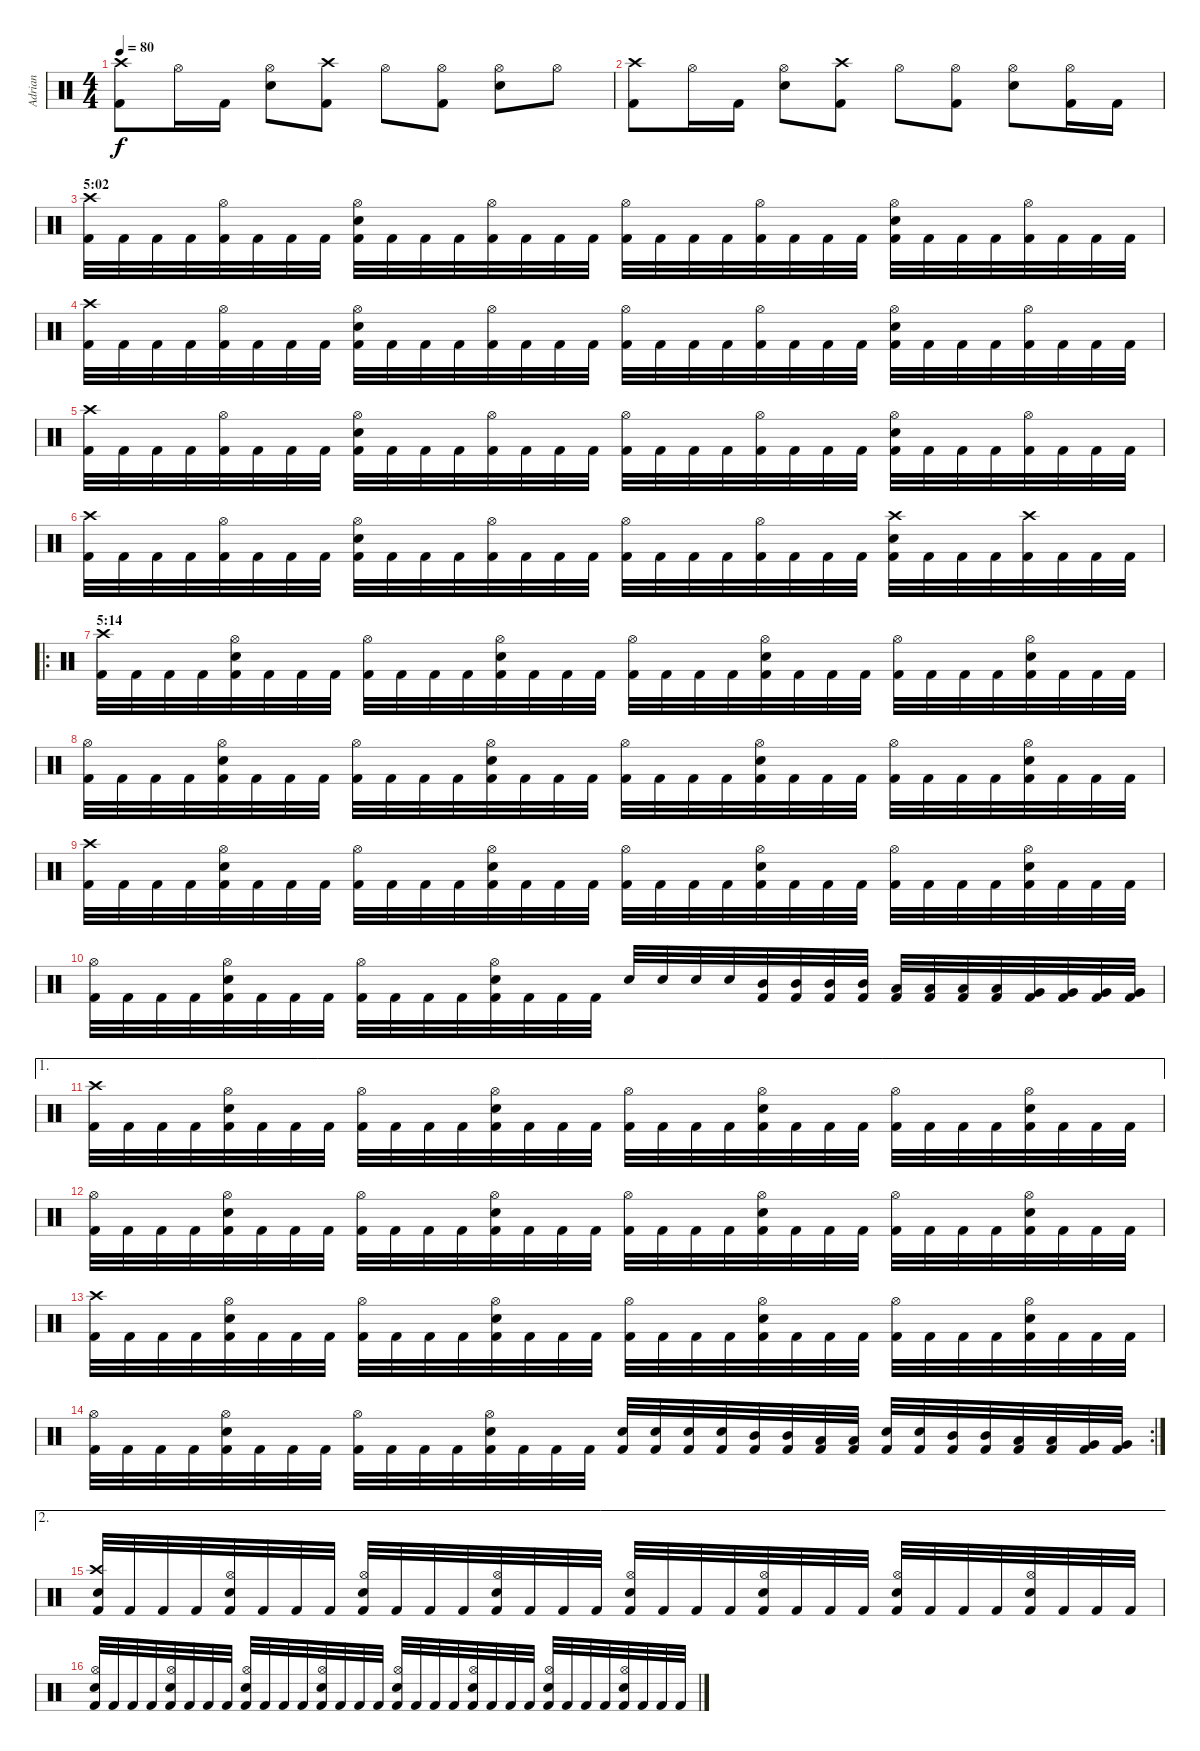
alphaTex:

\track ("Adrian" "Adrian") {instrument percussion}
\staff {score}
\articulation defaults
\ts (4 4)
\tempo 80
\clef neutral
\ks c
("Kick (hit) 2" "Crash high (hit)").8{dy f} "Hi-Hat (open)".16 "Kick (hit) 2".16 ("Snare (hit) 2" "Hi-Hat (open)").8 ("Kick (hit) 2" "Crash high (hit)").8 "Hi-Hat (open)".8 ("Kick (hit) 2" "Hi-Hat (open)").8 ("Snare (hit) 2" "Hi-Hat (open)").8 "Hi-Hat (open)".8 |
("Kick (hit) 2" "Crash high (hit)").8 "Hi-Hat (open)".16 "Kick (hit) 2".16 ("Snare (hit) 2" "Hi-Hat (open)").8 ("Kick (hit) 2" "Crash high (hit)").8 "Hi-Hat (open)".8 ("Kick (hit) 2" "Hi-Hat (open)").8 ("Snare (hit) 2" "Hi-Hat (open)").8 ("Kick (hit) 2" "Hi-Hat (open)").16 "Kick (hit) 2".16 |
\section ("" "5:02")
("Kick (hit) 2" "Crash high (hit)").32 "Kick (hit) 2".32 "Kick (hit) 2".32 "Kick (hit) 2".32 ("Kick (hit) 2" "Hi-Hat (open)").32 "Kick (hit) 2".32 "Kick (hit) 2".32 "Kick (hit) 2".32 ("Kick (hit) 2" "Snare (hit) 2" "Hi-Hat (open)").32 "Kick (hit) 2".32 "Kick (hit) 2".32 "Kick (hit) 2".32 ("Kick (hit) 2" "Hi-Hat (open)").32 "Kick (hit) 2".32 "Kick (hit) 2".32 "Kick (hit) 2".32 ("Kick (hit) 2" "Hi-Hat (open)").32 "Kick (hit) 2".32 "Kick (hit) 2".32 "Kick (hit) 2".32 ("Kick (hit) 2" "Hi-Hat (open)").32 "Kick (hit) 2".32 "Kick (hit) 2".32 "Kick (hit) 2".32 ("Kick (hit) 2" "Snare (hit) 2" "Hi-Hat (open)").32 "Kick (hit) 2".32 "Kick (hit) 2".32 "Kick (hit) 2".32 ("Kick (hit) 2" "Hi-Hat (open)").32 "Kick (hit) 2".32 "Kick (hit) 2".32 "Kick (hit) 2".32 |
("Kick (hit) 2" "Crash high (hit)").32 "Kick (hit) 2".32 "Kick (hit) 2".32 "Kick (hit) 2".32 ("Kick (hit) 2" "Hi-Hat (open)").32 "Kick (hit) 2".32 "Kick (hit) 2".32 "Kick (hit) 2".32 ("Kick (hit) 2" "Snare (hit) 2" "Hi-Hat (open)").32 "Kick (hit) 2".32 "Kick (hit) 2".32 "Kick (hit) 2".32 ("Kick (hit) 2" "Hi-Hat (open)").32 "Kick (hit) 2".32 "Kick (hit) 2".32 "Kick (hit) 2".32 ("Kick (hit) 2" "Hi-Hat (open)").32 "Kick (hit) 2".32 "Kick (hit) 2".32 "Kick (hit) 2".32 ("Kick (hit) 2" "Hi-Hat (open)").32 "Kick (hit) 2".32 "Kick (hit) 2".32 "Kick (hit) 2".32 ("Kick (hit) 2" "Snare (hit) 2" "Hi-Hat (open)").32 "Kick (hit) 2".32 "Kick (hit) 2".32 "Kick (hit) 2".32 ("Kick (hit) 2" "Hi-Hat (open)").32 "Kick (hit) 2".32 "Kick (hit) 2".32 "Kick (hit) 2".32 |
("Kick (hit) 2" "Crash high (hit)").32 "Kick (hit) 2".32 "Kick (hit) 2".32 "Kick (hit) 2".32 ("Kick (hit) 2" "Hi-Hat (open)").32 "Kick (hit) 2".32 "Kick (hit) 2".32 "Kick (hit) 2".32 ("Kick (hit) 2" "Snare (hit) 2" "Hi-Hat (open)").32 "Kick (hit) 2".32 "Kick (hit) 2".32 "Kick (hit) 2".32 ("Kick (hit) 2" "Hi-Hat (open)").32 "Kick (hit) 2".32 "Kick (hit) 2".32 "Kick (hit) 2".32 ("Kick (hit) 2" "Hi-Hat (open)").32 "Kick (hit) 2".32 "Kick (hit) 2".32 "Kick (hit) 2".32 ("Kick (hit) 2" "Hi-Hat (open)").32 "Kick (hit) 2".32 "Kick (hit) 2".32 "Kick (hit) 2".32 ("Kick (hit) 2" "Snare (hit) 2" "Hi-Hat (open)").32 "Kick (hit) 2".32 "Kick (hit) 2".32 "Kick (hit) 2".32 ("Kick (hit) 2" "Hi-Hat (open)").32 "Kick (hit) 2".32 "Kick (hit) 2".32 "Kick (hit) 2".32 |
("Kick (hit) 2" "Crash high (hit)").32 "Kick (hit) 2".32 "Kick (hit) 2".32 "Kick (hit) 2".32 ("Kick (hit) 2" "Hi-Hat (open)").32 "Kick (hit) 2".32 "Kick (hit) 2".32 "Kick (hit) 2".32 ("Kick (hit) 2" "Snare (hit) 2" "Hi-Hat (open)").32 "Kick (hit) 2".32 "Kick (hit) 2".32 "Kick (hit) 2".32 ("Kick (hit) 2" "Hi-Hat (open)").32 "Kick (hit) 2".32 "Kick (hit) 2".32 "Kick (hit) 2".32 ("Kick (hit) 2" "Hi-Hat (open)").32 "Kick (hit) 2".32 "Kick (hit) 2".32 "Kick (hit) 2".32 ("Kick (hit) 2" "Hi-Hat (open)").32 "Kick (hit) 2".32 "Kick (hit) 2".32 "Kick (hit) 2".32 ("Kick (hit) 2" "Snare (hit) 2" "Crash high (hit)").32 "Kick (hit) 2".32 "Kick (hit) 2".32 "Kick (hit) 2".32 ("Kick (hit) 2" "Crash high (hit)").32 "Kick (hit) 2".32 "Kick (hit) 2".32 "Kick (hit) 2".32 |
\ro
\section ("" "5:14")
("Kick (hit) 2" "Crash high (hit)").32 "Kick (hit) 2".32 "Kick (hit) 2".32 "Kick (hit) 2".32 ("Kick (hit) 2" "Snare (hit) 2" "Hi-Hat (open)").32 "Kick (hit) 2".32 "Kick (hit) 2".32 "Kick (hit) 2".32 ("Kick (hit) 2" "Hi-Hat (open)").32 "Kick (hit) 2".32 "Kick (hit) 2".32 "Kick (hit) 2".32 ("Kick (hit) 2" "Snare (hit) 2" "Hi-Hat (open)").32 "Kick (hit) 2".32 "Kick (hit) 2".32 "Kick (hit) 2".32 ("Kick (hit) 2" "Hi-Hat (open)").32 "Kick (hit) 2".32 "Kick (hit) 2".32 "Kick (hit) 2".32 ("Kick (hit) 2" "Snare (hit) 2" "Hi-Hat (open)").32 "Kick (hit) 2".32 "Kick (hit) 2".32 "Kick (hit) 2".32 ("Kick (hit) 2" "Hi-Hat (open)").32 "Kick (hit) 2".32 "Kick (hit) 2".32 "Kick (hit) 2".32 ("Kick (hit) 2" "Snare (hit) 2" "Hi-Hat (open)").32 "Kick (hit) 2".32 "Kick (hit) 2".32 "Kick (hit) 2".32 |
("Kick (hit) 2" "Hi-Hat (open)").32 "Kick (hit) 2".32 "Kick (hit) 2".32 "Kick (hit) 2".32 ("Kick (hit) 2" "Snare (hit) 2" "Hi-Hat (open)").32 "Kick (hit) 2".32 "Kick (hit) 2".32 "Kick (hit) 2".32 ("Kick (hit) 2" "Hi-Hat (open)").32 "Kick (hit) 2".32 "Kick (hit) 2".32 "Kick (hit) 2".32 ("Kick (hit) 2" "Snare (hit) 2" "Hi-Hat (open)").32 "Kick (hit) 2".32 "Kick (hit) 2".32 "Kick (hit) 2".32 ("Kick (hit) 2" "Hi-Hat (open)").32 "Kick (hit) 2".32 "Kick (hit) 2".32 "Kick (hit) 2".32 ("Kick (hit) 2" "Snare (hit) 2" "Hi-Hat (open)").32 "Kick (hit) 2".32 "Kick (hit) 2".32 "Kick (hit) 2".32 ("Kick (hit) 2" "Hi-Hat (open)").32 "Kick (hit) 2".32 "Kick (hit) 2".32 "Kick (hit) 2".32 ("Kick (hit) 2" "Snare (hit) 2" "Hi-Hat (open)").32 "Kick (hit) 2".32 "Kick (hit) 2".32 "Kick (hit) 2".32 |
("Kick (hit) 2" "Crash high (hit)").32 "Kick (hit) 2".32 "Kick (hit) 2".32 "Kick (hit) 2".32 ("Kick (hit) 2" "Snare (hit) 2" "Hi-Hat (open)").32 "Kick (hit) 2".32 "Kick (hit) 2".32 "Kick (hit) 2".32 ("Kick (hit) 2" "Hi-Hat (open)").32 "Kick (hit) 2".32 "Kick (hit) 2".32 "Kick (hit) 2".32 ("Kick (hit) 2" "Snare (hit) 2" "Hi-Hat (open)").32 "Kick (hit) 2".32 "Kick (hit) 2".32 "Kick (hit) 2".32 ("Kick (hit) 2" "Hi-Hat (open)").32 "Kick (hit) 2".32 "Kick (hit) 2".32 "Kick (hit) 2".32 ("Kick (hit) 2" "Snare (hit) 2" "Hi-Hat (open)").32 "Kick (hit) 2".32 "Kick (hit) 2".32 "Kick (hit) 2".32 ("Kick (hit) 2" "Hi-Hat (open)").32 "Kick (hit) 2".32 "Kick (hit) 2".32 "Kick (hit) 2".32 ("Kick (hit) 2" "Snare (hit) 2" "Hi-Hat (open)").32 "Kick (hit) 2".32 "Kick (hit) 2".32 "Kick (hit) 2".32 |
("Kick (hit) 2" "Hi-Hat (open)").32 "Kick (hit) 2".32 "Kick (hit) 2".32 "Kick (hit) 2".32 ("Kick (hit) 2" "Snare (hit) 2" "Hi-Hat (open)").32 "Kick (hit) 2".32 "Kick (hit) 2".32 "Kick (hit) 2".32 ("Kick (hit) 2" "Hi-Hat (open)").32 "Kick (hit) 2".32 "Kick (hit) 2".32 "Kick (hit) 2".32 ("Kick (hit) 2" "Snare (hit) 2" "Hi-Hat (open)").32 "Kick (hit) 2".32 "Kick (hit) 2".32 "Kick (hit) 2".32 "Snare (hit) 2".32 "Snare (hit) 2".32 "Snare (hit) 2".32 "Snare (hit) 2".32 ("Kick (hit) 2" "Mid Tom (hit)").32 ("Kick (hit) 2" "Mid Tom (hit)").32 ("Kick (hit) 2" "Mid Tom (hit)").32 ("Kick (hit) 2" "Mid Tom (hit)").32 ("Kick (hit) 2" "Low Tom (hit)").32 ("Kick (hit) 2" "Low Tom (hit)").32 ("Kick (hit) 2" "Low Tom (hit)").32 ("Kick (hit) 2" "Low Tom (hit)").32 ("Kick (hit) 2" "Very Low Tom (hit)").32 ("Kick (hit) 2" "Very Low Tom (hit)").32 ("Kick (hit) 2" "Very Low Tom (hit)").32 ("Kick (hit) 2" "Very Low Tom (hit)").32 |
\ae 1
("Kick (hit) 2" "Crash high (hit)").32 "Kick (hit) 2".32 "Kick (hit) 2".32 "Kick (hit) 2".32 ("Kick (hit) 2" "Snare (hit) 2" "Hi-Hat (open)").32 "Kick (hit) 2".32 "Kick (hit) 2".32 "Kick (hit) 2".32 ("Kick (hit) 2" "Hi-Hat (open)").32 "Kick (hit) 2".32 "Kick (hit) 2".32 "Kick (hit) 2".32 ("Kick (hit) 2" "Snare (hit) 2" "Hi-Hat (open)").32 "Kick (hit) 2".32 "Kick (hit) 2".32 "Kick (hit) 2".32 ("Kick (hit) 2" "Hi-Hat (open)").32 "Kick (hit) 2".32 "Kick (hit) 2".32 "Kick (hit) 2".32 ("Kick (hit) 2" "Snare (hit) 2" "Hi-Hat (open)").32 "Kick (hit) 2".32 "Kick (hit) 2".32 "Kick (hit) 2".32 ("Kick (hit) 2" "Hi-Hat (open)").32 "Kick (hit) 2".32 "Kick (hit) 2".32 "Kick (hit) 2".32 ("Kick (hit) 2" "Snare (hit) 2" "Hi-Hat (open)").32 "Kick (hit) 2".32 "Kick (hit) 2".32 "Kick (hit) 2".32 |
("Kick (hit) 2" "Hi-Hat (open)").32 "Kick (hit) 2".32 "Kick (hit) 2".32 "Kick (hit) 2".32 ("Kick (hit) 2" "Snare (hit) 2" "Hi-Hat (open)").32 "Kick (hit) 2".32 "Kick (hit) 2".32 "Kick (hit) 2".32 ("Kick (hit) 2" "Hi-Hat (open)").32 "Kick (hit) 2".32 "Kick (hit) 2".32 "Kick (hit) 2".32 ("Kick (hit) 2" "Snare (hit) 2" "Hi-Hat (open)").32 "Kick (hit) 2".32 "Kick (hit) 2".32 "Kick (hit) 2".32 ("Kick (hit) 2" "Hi-Hat (open)").32 "Kick (hit) 2".32 "Kick (hit) 2".32 "Kick (hit) 2".32 ("Kick (hit) 2" "Snare (hit) 2" "Hi-Hat (open)").32 "Kick (hit) 2".32 "Kick (hit) 2".32 "Kick (hit) 2".32 ("Kick (hit) 2" "Hi-Hat (open)").32 "Kick (hit) 2".32 "Kick (hit) 2".32 "Kick (hit) 2".32 ("Kick (hit) 2" "Snare (hit) 2" "Hi-Hat (open)").32 "Kick (hit) 2".32 "Kick (hit) 2".32 "Kick (hit) 2".32 |
("Kick (hit) 2" "Crash high (hit)").32 "Kick (hit) 2".32 "Kick (hit) 2".32 "Kick (hit) 2".32 ("Kick (hit) 2" "Snare (hit) 2" "Hi-Hat (open)").32 "Kick (hit) 2".32 "Kick (hit) 2".32 "Kick (hit) 2".32 ("Kick (hit) 2" "Hi-Hat (open)").32 "Kick (hit) 2".32 "Kick (hit) 2".32 "Kick (hit) 2".32 ("Kick (hit) 2" "Snare (hit) 2" "Hi-Hat (open)").32 "Kick (hit) 2".32 "Kick (hit) 2".32 "Kick (hit) 2".32 ("Kick (hit) 2" "Hi-Hat (open)").32 "Kick (hit) 2".32 "Kick (hit) 2".32 "Kick (hit) 2".32 ("Kick (hit) 2" "Snare (hit) 2" "Hi-Hat (open)").32 "Kick (hit) 2".32 "Kick (hit) 2".32 "Kick (hit) 2".32 ("Kick (hit) 2" "Hi-Hat (open)").32 "Kick (hit) 2".32 "Kick (hit) 2".32 "Kick (hit) 2".32 ("Kick (hit) 2" "Snare (hit) 2" "Hi-Hat (open)").32 "Kick (hit) 2".32 "Kick (hit) 2".32 "Kick (hit) 2".32 |
\rc 2
("Kick (hit) 2" "Hi-Hat (open)").32 "Kick (hit) 2".32 "Kick (hit) 2".32 "Kick (hit) 2".32 ("Kick (hit) 2" "Snare (hit) 2" "Hi-Hat (open)").32 "Kick (hit) 2".32 "Kick (hit) 2".32 "Kick (hit) 2".32 ("Kick (hit) 2" "Hi-Hat (open)").32 "Kick (hit) 2".32 "Kick (hit) 2".32 "Kick (hit) 2".32 ("Kick (hit) 2" "Snare (hit) 2" "Hi-Hat (open)").32 "Kick (hit) 2".32 "Kick (hit) 2".32 "Kick (hit) 2".32 ("Kick (hit) 2" "Snare (hit) 2").32 ("Kick (hit) 2" "Snare (hit) 2").32 ("Kick (hit) 2" "Snare (hit) 2").32 ("Kick (hit) 2" "Snare (hit) 2").32 ("Kick (hit) 2" "Mid Tom (hit)").32 ("Kick (hit) 2" "Mid Tom (hit)").32 ("Kick (hit) 2" "Low Tom (hit)").32 ("Kick (hit) 2" "Low Tom (hit)").32 ("Kick (hit) 2" "Snare (hit) 2").32 ("Kick (hit) 2" "Snare (hit) 2").32 ("Kick (hit) 2" "Mid Tom (hit)").32 ("Kick (hit) 2" "Mid Tom (hit)").32 ("Kick (hit) 2" "Low Tom (hit)").32 ("Kick (hit) 2" "Low Tom (hit)").32 ("Kick (hit) 2" "Very Low Tom (hit)").32 ("Kick (hit) 2" "Very Low Tom (hit)").32 |
\ae 2
("Kick (hit) 2" "Snare (hit) 2" "Crash high (hit)").32 "Kick (hit) 2".32 "Kick (hit) 2".32 "Kick (hit) 2".32 ("Kick (hit) 2" "Snare (hit) 2" "Hi-Hat (open)").32 "Kick (hit) 2".32 "Kick (hit) 2".32 "Kick (hit) 2".32 ("Kick (hit) 2" "Snare (hit) 2" "Hi-Hat (open)").32 "Kick (hit) 2".32 "Kick (hit) 2".32 "Kick (hit) 2".32 ("Kick (hit) 2" "Snare (hit) 2" "Hi-Hat (open)").32 "Kick (hit) 2".32 "Kick (hit) 2".32 "Kick (hit) 2".32 ("Kick (hit) 2" "Snare (hit) 2" "Hi-Hat (open)").32 "Kick (hit) 2".32 "Kick (hit) 2".32 "Kick (hit) 2".32 ("Kick (hit) 2" "Snare (hit) 2" "Hi-Hat (open)").32 "Kick (hit) 2".32 "Kick (hit) 2".32 "Kick (hit) 2".32 ("Kick (hit) 2" "Snare (hit) 2" "Hi-Hat (open)").32 "Kick (hit) 2".32 "Kick (hit) 2".32 "Kick (hit) 2".32 ("Kick (hit) 2" "Snare (hit) 2" "Hi-Hat (open)").32 "Kick (hit) 2".32 "Kick (hit) 2".32 "Kick (hit) 2".32 |
("Kick (hit) 2" "Snare (hit) 2" "Hi-Hat (open)").32 "Kick (hit) 2".32 "Kick (hit) 2".32 "Kick (hit) 2".32 ("Kick (hit) 2" "Snare (hit) 2" "Hi-Hat (open)").32 "Kick (hit) 2".32 "Kick (hit) 2".32 "Kick (hit) 2".32 ("Kick (hit) 2" "Snare (hit) 2" "Hi-Hat (open)").32 "Kick (hit) 2".32 "Kick (hit) 2".32 "Kick (hit) 2".32 ("Kick (hit) 2" "Snare (hit) 2" "Hi-Hat (open)").32 "Kick (hit) 2".32 "Kick (hit) 2".32 "Kick (hit) 2".32 ("Kick (hit) 2" "Snare (hit) 2" "Hi-Hat (open)").32 "Kick (hit) 2".32 "Kick (hit) 2".32 "Kick (hit) 2".32 ("Kick (hit) 2" "Snare (hit) 2" "Hi-Hat (open)").32 "Kick (hit) 2".32 "Kick (hit) 2".32 "Kick (hit) 2".32 ("Kick (hit) 2" "Snare (hit) 2" "Hi-Hat (open)").32 "Kick (hit) 2".32 "Kick (hit) 2".32 "Kick (hit) 2".32 ("Kick (hit) 2" "Snare (hit) 2" "Hi-Hat (open)").32 "Kick (hit) 2".32 "Kick (hit) 2".32 "Kick (hit) 2".32
